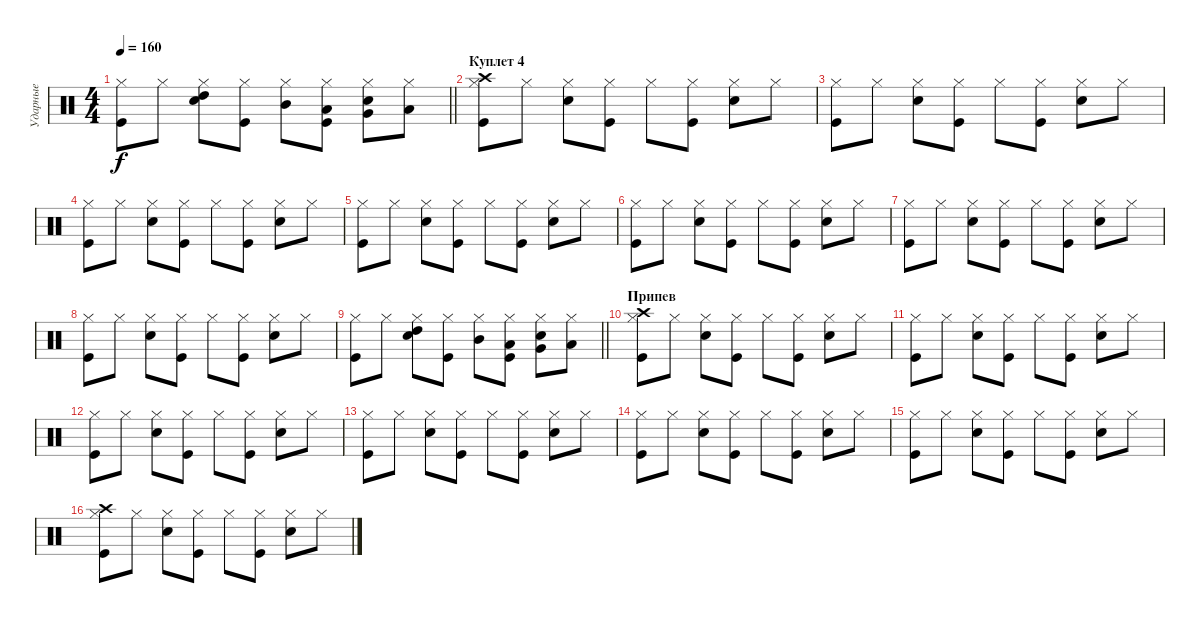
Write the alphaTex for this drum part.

\track ("Ударные" "Ударные") {instrument percussion}
\staff {score}
\articulation defaults
\ts (4 4)
\tempo 160
\clef neutral
\barLineRight lightlight
\ks c
("Kick (hit)" "Hi-Hat (closed)").8{dy f} "Hi-Hat (closed)".8 ("Snare (hit) 2" "High Tom (hit)" "Hi-Hat (closed)").8 ("Kick (hit)" "Hi-Hat (closed)").8 ("Mid Tom (hit)" "Hi-Hat (closed)").8 ("Kick (hit)" "Low Tom (hit)" "Hi-Hat (closed)").8 ("Snare (hit) 2" "Very Low Tom (hit)" "Hi-Hat (closed)").8 ("Low Floor Tom (hit)" "Hi-Hat (closed)").8 |
\section ("" "Куплет 4")
("Kick (hit)" "Crash high (hit)" "Hi-Hat (closed)").8 "Hi-Hat (closed)".8 ("Snare (hit) 2" "Hi-Hat (closed)").8 ("Kick (hit)" "Hi-Hat (closed)").8 "Hi-Hat (closed)".8 ("Kick (hit)" "Hi-Hat (closed)").8 ("Snare (hit) 2" "Hi-Hat (closed)").8 "Hi-Hat (closed)".8 |
("Kick (hit)" "Hi-Hat (closed)").8 "Hi-Hat (closed)".8 ("Snare (hit) 2" "Hi-Hat (closed)").8 ("Kick (hit)" "Hi-Hat (closed)").8 "Hi-Hat (closed)".8 ("Kick (hit)" "Hi-Hat (closed)").8 ("Snare (hit) 2" "Hi-Hat (closed)").8 "Hi-Hat (closed)".8 |
("Kick (hit)" "Hi-Hat (closed)").8 "Hi-Hat (closed)".8 ("Snare (hit) 2" "Hi-Hat (closed)").8 ("Kick (hit)" "Hi-Hat (closed)").8 "Hi-Hat (closed)".8 ("Kick (hit)" "Hi-Hat (closed)").8 ("Snare (hit) 2" "Hi-Hat (closed)").8 "Hi-Hat (closed)".8 |
("Kick (hit)" "Hi-Hat (closed)").8 "Hi-Hat (closed)".8 ("Snare (hit) 2" "Hi-Hat (closed)").8 ("Kick (hit)" "Hi-Hat (closed)").8 "Hi-Hat (closed)".8 ("Kick (hit)" "Hi-Hat (closed)").8 ("Snare (hit) 2" "Hi-Hat (closed)").8 "Hi-Hat (closed)".8 |
("Kick (hit)" "Hi-Hat (closed)").8 "Hi-Hat (closed)".8 ("Snare (hit) 2" "Hi-Hat (closed)").8 ("Kick (hit)" "Hi-Hat (closed)").8 "Hi-Hat (closed)".8 ("Kick (hit)" "Hi-Hat (closed)").8 ("Snare (hit) 2" "Hi-Hat (closed)").8 "Hi-Hat (closed)".8 |
("Kick (hit)" "Hi-Hat (closed)").8 "Hi-Hat (closed)".8 ("Snare (hit) 2" "Hi-Hat (closed)").8 ("Kick (hit)" "Hi-Hat (closed)").8 "Hi-Hat (closed)".8 ("Kick (hit)" "Hi-Hat (closed)").8 ("Snare (hit) 2" "Hi-Hat (closed)").8 "Hi-Hat (closed)".8 |
("Kick (hit)" "Hi-Hat (closed)").8 "Hi-Hat (closed)".8 ("Snare (hit) 2" "Hi-Hat (closed)").8 ("Kick (hit)" "Hi-Hat (closed)").8 "Hi-Hat (closed)".8 ("Kick (hit)" "Hi-Hat (closed)").8 ("Snare (hit) 2" "Hi-Hat (closed)").8 "Hi-Hat (closed)".8 |
\barLineRight lightlight
("Kick (hit)" "Hi-Hat (closed)").8 "Hi-Hat (closed)".8 ("Snare (hit) 2" "High Tom (hit)" "Hi-Hat (closed)").8 ("Kick (hit)" "Hi-Hat (closed)").8 ("Mid Tom (hit)" "Hi-Hat (closed)").8 ("Kick (hit)" "Low Tom (hit)" "Hi-Hat (closed)").8 ("Snare (hit) 2" "Very Low Tom (hit)" "Hi-Hat (closed)").8 ("Low Floor Tom (hit)" "Hi-Hat (closed)").8 |
\section ("" "Припев")
("Kick (hit)" "Crash high (hit)" "Hi-Hat (closed)").8 "Hi-Hat (closed)".8 ("Snare (hit) 2" "Hi-Hat (closed)").8 ("Kick (hit)" "Hi-Hat (closed)").8 "Hi-Hat (closed)".8 ("Kick (hit)" "Hi-Hat (closed)").8 ("Snare (hit) 2" "Hi-Hat (closed)").8 "Hi-Hat (closed)".8 |
("Kick (hit)" "Hi-Hat (closed)").8 "Hi-Hat (closed)".8 ("Snare (hit) 2" "Hi-Hat (closed)").8 ("Kick (hit)" "Hi-Hat (closed)").8 "Hi-Hat (closed)".8 ("Kick (hit)" "Hi-Hat (closed)").8 ("Snare (hit) 2" "Hi-Hat (closed)").8 "Hi-Hat (closed)".8 |
("Kick (hit)" "Hi-Hat (closed)").8 "Hi-Hat (closed)".8 ("Snare (hit) 2" "Hi-Hat (closed)").8 ("Kick (hit)" "Hi-Hat (closed)").8 "Hi-Hat (closed)".8 ("Kick (hit)" "Hi-Hat (closed)").8 ("Snare (hit) 2" "Hi-Hat (closed)").8 "Hi-Hat (closed)".8 |
("Kick (hit)" "Hi-Hat (closed)").8 "Hi-Hat (closed)".8 ("Snare (hit) 2" "Hi-Hat (closed)").8 ("Kick (hit)" "Hi-Hat (closed)").8 "Hi-Hat (closed)".8 ("Kick (hit)" "Hi-Hat (closed)").8 ("Snare (hit) 2" "Hi-Hat (closed)").8 "Hi-Hat (closed)".8 |
("Kick (hit)" "Hi-Hat (closed)").8 "Hi-Hat (closed)".8 ("Snare (hit) 2" "Hi-Hat (closed)").8 ("Kick (hit)" "Hi-Hat (closed)").8 "Hi-Hat (closed)".8 ("Kick (hit)" "Hi-Hat (closed)").8 ("Snare (hit) 2" "Hi-Hat (closed)").8 "Hi-Hat (closed)".8 |
("Kick (hit)" "Hi-Hat (closed)").8 "Hi-Hat (closed)".8 ("Snare (hit) 2" "Hi-Hat (closed)").8 ("Kick (hit)" "Hi-Hat (closed)").8 "Hi-Hat (closed)".8 ("Kick (hit)" "Hi-Hat (closed)").8 ("Snare (hit) 2" "Hi-Hat (closed)").8 "Hi-Hat (closed)".8 |
("Kick (hit)" "Crash high (hit)" "Hi-Hat (closed)").8 "Hi-Hat (closed)".8 ("Snare (hit) 2" "Hi-Hat (closed)").8 ("Kick (hit)" "Hi-Hat (closed)").8 "Hi-Hat (closed)".8 ("Kick (hit)" "Hi-Hat (closed)").8 ("Snare (hit) 2" "Hi-Hat (closed)").8 "Hi-Hat (closed)".8
